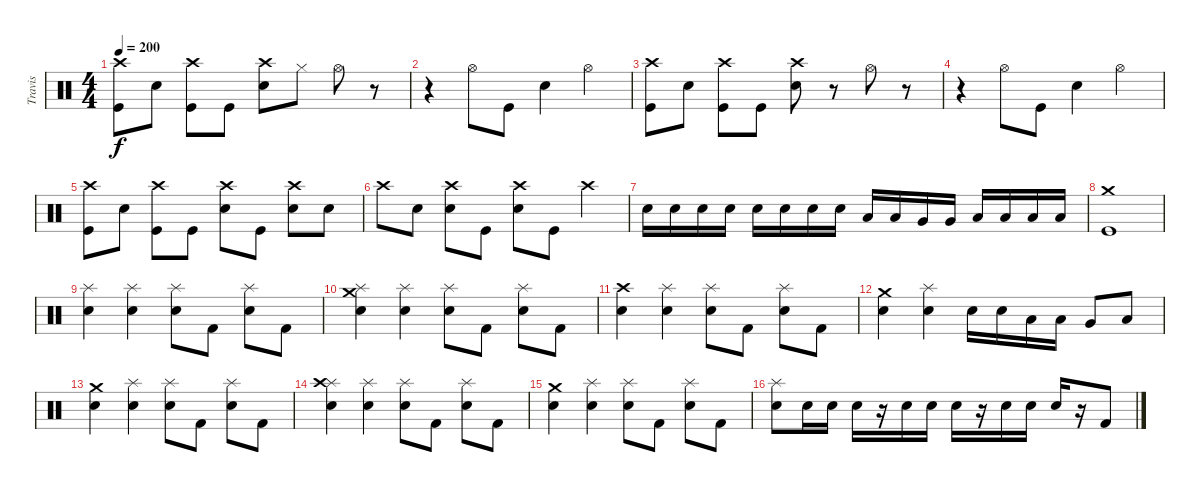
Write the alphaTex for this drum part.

\track ("Travis" "Travis") {instrument percussion}
\staff {score}
\articulation defaults
\ts (4 4)
\tempo 200
\clef neutral
\ks c
("Kick (hit)" "Crash high (hit)").8{dy f} "Snare (hit) 2".8 ("Kick (hit)" "Crash high (hit)").8 "Kick (hit)".8 ("Snare (hit) 2" "Crash high (hit)").8 "Hi-Hat (closed)".8 "Hi-Hat (open)".8 r.8 |
r.4 "Hi-Hat (open)".8 "Kick (hit)".8 "Snare (hit) 2".4 "Hi-Hat (open)".4 |
("Kick (hit)" "Crash high (hit)").8 "Snare (hit) 2".8 ("Kick (hit)" "Crash high (hit)").8 "Kick (hit)".8 ("Snare (hit) 2" "Crash high (hit)").8 r.8 "Hi-Hat (open)".8 r.8 |
r.4 "Hi-Hat (open)".8 "Kick (hit)".8 "Snare (hit) 2".4 "Hi-Hat (open)".4 |
("Kick (hit)" "Crash high (hit)").8 "Snare (hit) 2".8 ("Kick (hit)" "Crash high (hit)").8 "Kick (hit)".8 ("Snare (hit) 2" "Crash high (hit)").8 "Kick (hit)".8 ("Snare (hit) 2" "Crash high (hit)").8 "Snare (hit) 2".8 |
"Crash high (hit)".8 "Snare (hit) 2".8 ("Snare (hit) 2" "Crash high (hit)").8 "Kick (hit)".8 ("Snare (hit) 2" "Crash high (hit)").8 "Kick (hit)".8 "Crash high (hit)".4 |
"Snare (hit) 2".16 "Snare (hit) 2".16 "Snare (hit) 2".16 "Snare (hit) 2".16 "Snare (hit) 2".16 "Snare (hit) 2".16 "Snare (hit) 2".16 "Snare (hit) 2".16 "Low Tom (hit)".16 "Low Tom (hit)".16 "Very Low Tom (hit)".16 "Very Low Tom (hit)".16 "Low Floor Tom (hit)".16 "Low Floor Tom (hit)".16 "Low Floor Tom (hit)".16 "Low Floor Tom (hit)".16 |
("Kick (hit)" "Crash medium (hit)").1 |
("Snare (hit) 2" "Splash (hit)").4 ("Snare (hit) 2" "Splash (hit)").4 ("Snare (hit) 2" "Splash (hit)").8 "Kick (hit) 2".8 ("Snare (hit) 2" "Splash (hit)").8 "Kick (hit) 2".8 |
("Snare (hit) 2" "Splash (hit)" "Crash medium (hit)").4 ("Snare (hit) 2" "Splash (hit)").4 ("Snare (hit) 2" "Splash (hit)").8 "Kick (hit) 2".8 ("Snare (hit) 2" "Splash (hit)").8 "Kick (hit) 2".8 |
("Snare (hit) 2" "Crash high (hit)").4 ("Snare (hit) 2" "Splash (hit)").4 ("Snare (hit) 2" "Splash (hit)").8 "Kick (hit) 2".8 ("Snare (hit) 2" "Splash (hit)").8 "Kick (hit) 2".8 |
("Snare (hit) 2" "Crash medium (hit)").4 ("Snare (hit) 2" "Splash (hit)").4 "Snare (hit) 2".16 "Snare (hit) 2".16 "Low Tom (hit)".16 "Low Tom (hit)".16 "Very Low Tom (hit)".8 "Low Floor Tom (hit)".8 |
("Snare (hit) 2" "Crash medium (hit)").4 ("Snare (hit) 2" "Splash (hit)").4 ("Snare (hit) 2" "Splash (hit)").8 "Kick (hit) 2".8 ("Snare (hit) 2" "Splash (hit)").8 "Kick (hit) 2".8 |
("Snare (hit) 2" "Splash (hit)" "Crash high (hit)").4 ("Snare (hit) 2" "Splash (hit)").4 ("Snare (hit) 2" "Splash (hit)").8 "Kick (hit) 2".8 ("Snare (hit) 2" "Splash (hit)").8 "Kick (hit) 2".8 |
("Snare (hit) 2" "Crash medium (hit)").4 ("Snare (hit) 2" "Splash (hit)").4 ("Snare (hit) 2" "Splash (hit)").8 "Kick (hit) 2".8 ("Snare (hit) 2" "Splash (hit)").8 "Kick (hit) 2".8 |
("Snare (hit) 2" "Splash (hit)").8 "Snare (hit) 2".16 "Snare (hit) 2".16 "Snare (hit) 2".16 r.16 "Snare (hit) 2".16 "Snare (hit) 2".16 "Snare (hit) 2".16 r.16 "Snare (hit) 2".16 "Snare (hit) 2".16 "Snare (hit) 2".16 r.16 "Kick (hit) 2".8
